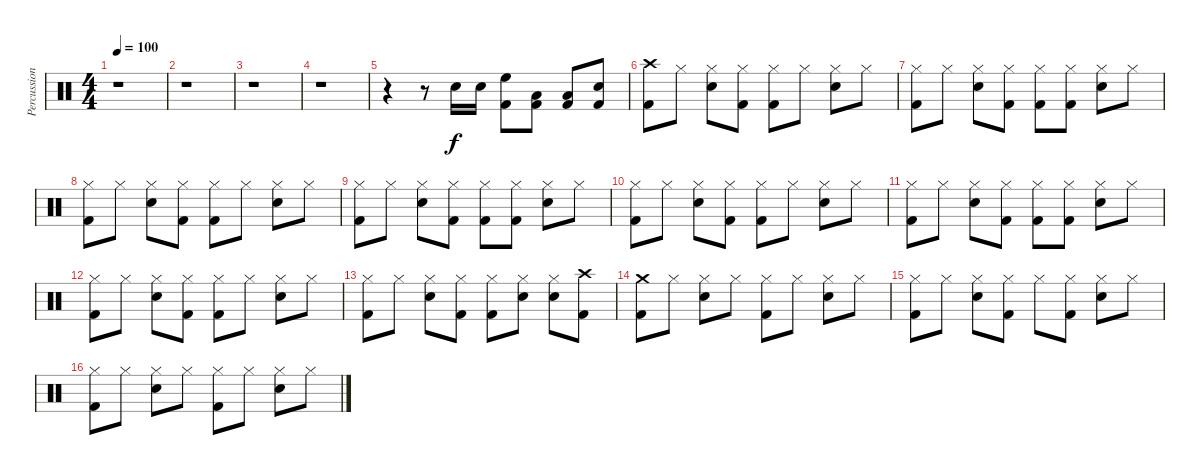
\track ("Percussion" "Percussion") {instrument percussion}
\staff {score}
\articulation defaults
\ts (4 4)
\tempo 100
\clef neutral
\ks c
r.1{dy f} |
r.1 |
r.1 |
r.1 |
r.4 r.8 "Snare (hit) 2".16 "Snare (hit) 2".16 ("High Floor Tom (hit)" "Kick (hit) 2").8 ("Low Tom (hit)" "Kick (hit) 2").8 ("Low Floor Tom (hit)" "Kick (hit) 2").8 ("Snare (hit) 2" "Kick (hit) 2").8 |
("Crash high (hit)" "Kick (hit) 2").8 "Hi-Hat (closed)".8 ("Hi-Hat (closed)" "Snare (hit) 2").8 ("Hi-Hat (closed)" "Kick (hit) 2").8 ("Hi-Hat (closed)" "Kick (hit) 2").8 "Hi-Hat (closed)".8 ("Hi-Hat (closed)" "Snare (hit) 2").8 "Hi-Hat (closed)".8 |
("Hi-Hat (closed)" "Kick (hit) 2").8 "Hi-Hat (closed)".8 ("Hi-Hat (closed)" "Snare (hit) 2").8 ("Hi-Hat (closed)" "Kick (hit) 2").8 ("Hi-Hat (closed)" "Kick (hit) 2").8 ("Hi-Hat (closed)" "Kick (hit) 2").8 ("Hi-Hat (closed)" "Snare (hit) 2").8 "Hi-Hat (closed)".8 |
("Hi-Hat (closed)" "Kick (hit) 2").8 "Hi-Hat (closed)".8 ("Hi-Hat (closed)" "Snare (hit) 2").8 ("Hi-Hat (closed)" "Kick (hit) 2").8 ("Hi-Hat (closed)" "Kick (hit) 2").8 "Hi-Hat (closed)".8 ("Hi-Hat (closed)" "Snare (hit) 2").8 "Hi-Hat (closed)".8 |
("Hi-Hat (closed)" "Kick (hit) 2").8 "Hi-Hat (closed)".8 ("Hi-Hat (closed)" "Snare (hit) 2").8 ("Hi-Hat (closed)" "Kick (hit) 2").8 ("Hi-Hat (closed)" "Kick (hit) 2").8 ("Hi-Hat (closed)" "Kick (hit) 2").8 ("Hi-Hat (closed)" "Snare (hit) 2").8 "Hi-Hat (closed)".8 |
("Hi-Hat (closed)" "Kick (hit) 2").8 "Hi-Hat (closed)".8 ("Hi-Hat (closed)" "Snare (hit) 2").8 ("Hi-Hat (closed)" "Kick (hit) 2").8 ("Hi-Hat (closed)" "Kick (hit) 2").8 "Hi-Hat (closed)".8 ("Hi-Hat (closed)" "Snare (hit) 2").8 "Hi-Hat (closed)".8 |
("Hi-Hat (closed)" "Kick (hit) 2").8 "Hi-Hat (closed)".8 ("Hi-Hat (closed)" "Snare (hit) 2").8 ("Hi-Hat (closed)" "Kick (hit) 2").8 ("Hi-Hat (closed)" "Kick (hit) 2").8 ("Hi-Hat (closed)" "Kick (hit) 2").8 ("Hi-Hat (closed)" "Snare (hit) 2").8 "Hi-Hat (closed)".8 |
("Hi-Hat (closed)" "Kick (hit) 2").8 "Hi-Hat (closed)".8 ("Hi-Hat (closed)" "Snare (hit) 2").8 ("Hi-Hat (closed)" "Kick (hit) 2").8 ("Hi-Hat (closed)" "Kick (hit) 2").8 "Hi-Hat (closed)".8 ("Hi-Hat (closed)" "Snare (hit) 2").8 "Hi-Hat (closed)".8 |
("Hi-Hat (closed)" "Kick (hit) 2").8 "Hi-Hat (closed)".8 ("Hi-Hat (closed)" "Snare (hit) 2").8 ("Hi-Hat (closed)" "Kick (hit) 2").8 ("Hi-Hat (closed)" "Kick (hit) 2").8 ("Hi-Hat (closed)" "Snare (hit) 2").8 ("Hi-Hat (closed)" "Snare (hit) 2").8 ("Crash high (hit)" "Kick (hit) 2").8 |
("Crash medium (hit)" "Kick (hit) 2").8 "Hi-Hat (closed)".8 ("Hi-Hat (closed)" "Snare (hit) 2").8 "Hi-Hat (closed)".8 ("Hi-Hat (closed)" "Kick (hit) 2").8 "Hi-Hat (closed)".8 ("Hi-Hat (closed)" "Snare (hit) 2").8 "Hi-Hat (closed)".8 |
("Hi-Hat (closed)" "Kick (hit) 2").8 "Hi-Hat (closed)".8 ("Hi-Hat (closed)" "Snare (hit) 2").8 ("Hi-Hat (closed)" "Kick (hit) 2").8 "Hi-Hat (closed)".8 ("Hi-Hat (closed)" "Kick (hit) 2").8 ("Hi-Hat (closed)" "Snare (hit) 2").8 "Hi-Hat (closed)".8 |
("Hi-Hat (closed)" "Kick (hit) 2").8 "Hi-Hat (closed)".8 ("Hi-Hat (closed)" "Snare (hit) 2").8 "Hi-Hat (closed)".8 ("Hi-Hat (closed)" "Kick (hit) 2").8 "Hi-Hat (closed)".8 ("Hi-Hat (closed)" "Snare (hit) 2").8 "Hi-Hat (closed)".8
